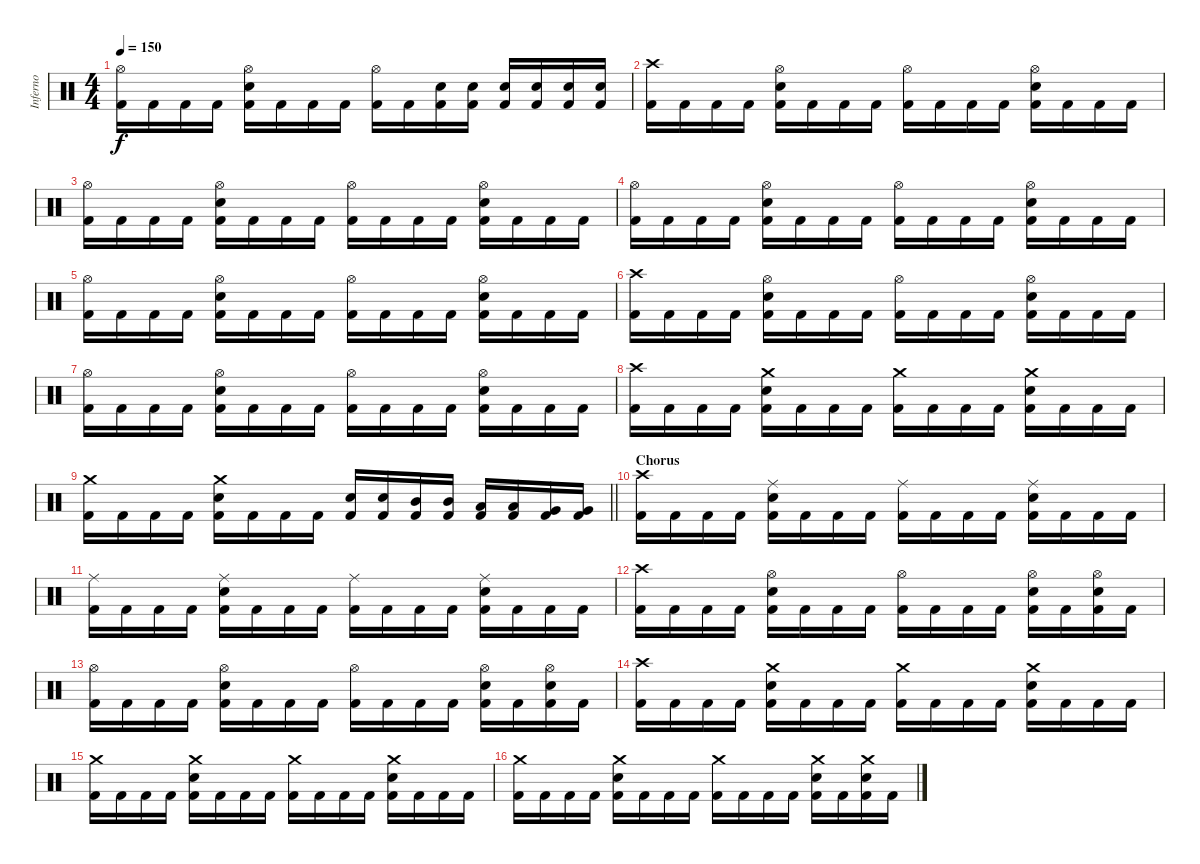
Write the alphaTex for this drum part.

\track ("Inferno" "Inferno") {instrument percussion}
\staff {score}
\articulation defaults
\ts (4 4)
\tempo 150
\clef neutral
\ks c
("Hi-Hat (open)" "Kick (hit) 2").16{dy f} "Kick (hit) 2".16 "Kick (hit) 2".16 "Kick (hit) 2".16 ("Hi-Hat (open)" "Electric Snare (hit)" "Kick (hit) 2").16 "Kick (hit) 2".16 "Kick (hit) 2".16 "Kick (hit) 2".16 ("Hi-Hat (open)" "Kick (hit) 2").16 "Kick (hit) 2".16 ("Electric Snare (hit)" "Kick (hit) 2").16 ("Electric Snare (hit)" "Kick (hit) 2").16 ("Electric Snare (hit)" "Kick (hit) 2").16 ("Electric Snare (hit)" "Kick (hit) 2").16 ("Electric Snare (hit)" "Kick (hit) 2").16 ("Electric Snare (hit)" "Kick (hit) 2").16 |
("Crash high (hit)" "Kick (hit) 2").16 "Kick (hit) 2".16 "Kick (hit) 2".16 "Kick (hit) 2".16 ("Hi-Hat (open)" "Electric Snare (hit)" "Kick (hit) 2").16 "Kick (hit) 2".16 "Kick (hit) 2".16 "Kick (hit) 2".16 ("Hi-Hat (open)" "Kick (hit) 2").16 "Kick (hit) 2".16 "Kick (hit) 2".16 "Kick (hit) 2".16 ("Hi-Hat (open)" "Electric Snare (hit)" "Kick (hit) 2").16 "Kick (hit) 2".16 "Kick (hit) 2".16 "Kick (hit) 2".16 |
("Hi-Hat (open)" "Kick (hit) 2").16 "Kick (hit) 2".16 "Kick (hit) 2".16 "Kick (hit) 2".16 ("Hi-Hat (open)" "Electric Snare (hit)" "Kick (hit) 2").16 "Kick (hit) 2".16 "Kick (hit) 2".16 "Kick (hit) 2".16 ("Hi-Hat (open)" "Kick (hit) 2").16 "Kick (hit) 2".16 "Kick (hit) 2".16 "Kick (hit) 2".16 ("Hi-Hat (open)" "Electric Snare (hit)" "Kick (hit) 2").16 "Kick (hit) 2".16 "Kick (hit) 2".16 "Kick (hit) 2".16 |
("Hi-Hat (open)" "Kick (hit) 2").16 "Kick (hit) 2".16 "Kick (hit) 2".16 "Kick (hit) 2".16 ("Hi-Hat (open)" "Electric Snare (hit)" "Kick (hit) 2").16 "Kick (hit) 2".16 "Kick (hit) 2".16 "Kick (hit) 2".16 ("Hi-Hat (open)" "Kick (hit) 2").16 "Kick (hit) 2".16 "Kick (hit) 2".16 "Kick (hit) 2".16 ("Hi-Hat (open)" "Electric Snare (hit)" "Kick (hit) 2").16 "Kick (hit) 2".16 "Kick (hit) 2".16 "Kick (hit) 2".16 |
("Hi-Hat (open)" "Kick (hit) 2").16 "Kick (hit) 2".16 "Kick (hit) 2".16 "Kick (hit) 2".16 ("Hi-Hat (open)" "Electric Snare (hit)" "Kick (hit) 2").16 "Kick (hit) 2".16 "Kick (hit) 2".16 "Kick (hit) 2".16 ("Hi-Hat (open)" "Kick (hit) 2").16 "Kick (hit) 2".16 "Kick (hit) 2".16 "Kick (hit) 2".16 ("Hi-Hat (open)" "Electric Snare (hit)" "Kick (hit) 2").16 "Kick (hit) 2".16 "Kick (hit) 2".16 "Kick (hit) 2".16 |
("Crash high (hit)" "Kick (hit) 2").16 "Kick (hit) 2".16 "Kick (hit) 2".16 "Kick (hit) 2".16 ("Hi-Hat (open)" "Electric Snare (hit)" "Kick (hit) 2").16 "Kick (hit) 2".16 "Kick (hit) 2".16 "Kick (hit) 2".16 ("Hi-Hat (open)" "Kick (hit) 2").16 "Kick (hit) 2".16 "Kick (hit) 2".16 "Kick (hit) 2".16 ("Hi-Hat (open)" "Electric Snare (hit)" "Kick (hit) 2").16 "Kick (hit) 2".16 "Kick (hit) 2".16 "Kick (hit) 2".16 |
("Hi-Hat (open)" "Kick (hit) 2").16 "Kick (hit) 2".16 "Kick (hit) 2".16 "Kick (hit) 2".16 ("Hi-Hat (open)" "Electric Snare (hit)" "Kick (hit) 2").16 "Kick (hit) 2".16 "Kick (hit) 2".16 "Kick (hit) 2".16 ("Hi-Hat (open)" "Kick (hit) 2").16 "Kick (hit) 2".16 "Kick (hit) 2".16 "Kick (hit) 2".16 ("Hi-Hat (open)" "Electric Snare (hit)" "Kick (hit) 2").16 "Kick (hit) 2".16 "Kick (hit) 2".16 "Kick (hit) 2".16 |
("Crash high (hit)" "Kick (hit) 2").16 "Kick (hit) 2".16 "Kick (hit) 2".16 "Kick (hit) 2".16 ("Crash medium (hit)" "Electric Snare (hit)" "Kick (hit) 2").16 "Kick (hit) 2".16 "Kick (hit) 2".16 "Kick (hit) 2".16 ("Crash medium (hit)" "Kick (hit) 2").16 "Kick (hit) 2".16 "Kick (hit) 2".16 "Kick (hit) 2".16 ("Crash medium (hit)" "Electric Snare (hit)" "Kick (hit) 2").16 "Kick (hit) 2".16 "Kick (hit) 2".16 "Kick (hit) 2".16 |
\barLineRight lightlight
("Crash medium (hit)" "Kick (hit) 2").16 "Kick (hit) 2".16 "Kick (hit) 2".16 "Kick (hit) 2".16 ("Crash medium (hit)" "Electric Snare (hit)" "Kick (hit) 2").16 "Kick (hit) 2".16 "Kick (hit) 2".16 "Kick (hit) 2".16 ("Electric Snare (hit)" "Kick (hit) 2").16 ("Electric Snare (hit)" "Kick (hit) 2").16 ("Mid Tom (hit)" "Kick (hit) 2").16 ("Mid Tom (hit)" "Kick (hit) 2").16 ("Low Tom (hit)" "Kick (hit) 2").16 ("Low Tom (hit)" "Kick (hit) 2").16 ("Very Low Tom (hit)" "Kick (hit) 2").16 ("Very Low Tom (hit)" "Kick (hit) 2").16 |
\section ("" "Chorus")
("Crash high (hit)" "Kick (hit) 2").16 "Kick (hit) 2".16 "Kick (hit) 2".16 "Kick (hit) 2".16 ("Ride (middle)" "Electric Snare (hit)" "Kick (hit) 2").16 "Kick (hit) 2".16 "Kick (hit) 2".16 "Kick (hit) 2".16 ("Ride (middle)" "Kick (hit) 2").16 "Kick (hit) 2".16 "Kick (hit) 2".16 "Kick (hit) 2".16 ("Ride (middle)" "Electric Snare (hit)" "Kick (hit) 2").16 "Kick (hit) 2".16 "Kick (hit) 2".16 "Kick (hit) 2".16 |
("Ride (middle)" "Kick (hit) 2").16 "Kick (hit) 2".16 "Kick (hit) 2".16 "Kick (hit) 2".16 ("Ride (middle)" "Electric Snare (hit)" "Kick (hit) 2").16 "Kick (hit) 2".16 "Kick (hit) 2".16 "Kick (hit) 2".16 ("Ride (middle)" "Kick (hit) 2").16 "Kick (hit) 2".16 "Kick (hit) 2".16 "Kick (hit) 2".16 ("Ride (middle)" "Electric Snare (hit)" "Kick (hit) 2").16 "Kick (hit) 2".16 "Kick (hit) 2".16 "Kick (hit) 2".16 |
("Crash high (hit)" "Kick (hit) 2").16 "Kick (hit) 2".16 "Kick (hit) 2".16 "Kick (hit) 2".16 ("Hi-Hat (open)" "Electric Snare (hit)" "Kick (hit) 2").16 "Kick (hit) 2".16 "Kick (hit) 2".16 "Kick (hit) 2".16 ("Hi-Hat (open)" "Kick (hit) 2").16 "Kick (hit) 2".16 "Kick (hit) 2".16 "Kick (hit) 2".16 ("Hi-Hat (open)" "Electric Snare (hit)" "Kick (hit) 2").16 "Kick (hit) 2".16 ("Hi-Hat (open)" "Electric Snare (hit)" "Kick (hit) 2").16 "Kick (hit) 2".16 |
("Hi-Hat (open)" "Kick (hit) 2").16 "Kick (hit) 2".16 "Kick (hit) 2".16 "Kick (hit) 2".16 ("Hi-Hat (open)" "Electric Snare (hit)" "Kick (hit) 2").16 "Kick (hit) 2".16 "Kick (hit) 2".16 "Kick (hit) 2".16 ("Hi-Hat (open)" "Kick (hit) 2").16 "Kick (hit) 2".16 "Kick (hit) 2".16 "Kick (hit) 2".16 ("Hi-Hat (open)" "Electric Snare (hit)" "Kick (hit) 2").16 "Kick (hit) 2".16 ("Hi-Hat (open)" "Electric Snare (hit)" "Kick (hit) 2").16 "Kick (hit) 2".16 |
("Crash high (hit)" "Kick (hit) 2").16 "Kick (hit) 2".16 "Kick (hit) 2".16 "Kick (hit) 2".16 ("Crash medium (hit)" "Electric Snare (hit)" "Kick (hit) 2").16 "Kick (hit) 2".16 "Kick (hit) 2".16 "Kick (hit) 2".16 ("Crash medium (hit)" "Kick (hit) 2").16 "Kick (hit) 2".16 "Kick (hit) 2".16 "Kick (hit) 2".16 ("Crash medium (hit)" "Electric Snare (hit)" "Kick (hit) 2").16 "Kick (hit) 2".16 "Kick (hit) 2".16 "Kick (hit) 2".16 |
("Crash medium (hit)" "Kick (hit) 2").16 "Kick (hit) 2".16 "Kick (hit) 2".16 "Kick (hit) 2".16 ("Crash medium (hit)" "Electric Snare (hit)" "Kick (hit) 2").16 "Kick (hit) 2".16 "Kick (hit) 2".16 "Kick (hit) 2".16 ("Crash medium (hit)" "Kick (hit) 2").16 "Kick (hit) 2".16 "Kick (hit) 2".16 "Kick (hit) 2".16 ("Crash medium (hit)" "Electric Snare (hit)" "Kick (hit) 2").16 "Kick (hit) 2".16 "Kick (hit) 2".16 "Kick (hit) 2".16 |
("Crash medium (hit)" "Kick (hit) 2").16 "Kick (hit) 2".16 "Kick (hit) 2".16 "Kick (hit) 2".16 ("Crash medium (hit)" "Electric Snare (hit)" "Kick (hit) 2").16 "Kick (hit) 2".16 "Kick (hit) 2".16 "Kick (hit) 2".16 ("Crash medium (hit)" "Kick (hit) 2").16 "Kick (hit) 2".16 "Kick (hit) 2".16 "Kick (hit) 2".16 ("Crash medium (hit)" "Electric Snare (hit)" "Kick (hit) 2").16 "Kick (hit) 2".16 ("Crash medium (hit)" "Electric Snare (hit)" "Kick (hit) 2").16 "Kick (hit) 2".16
